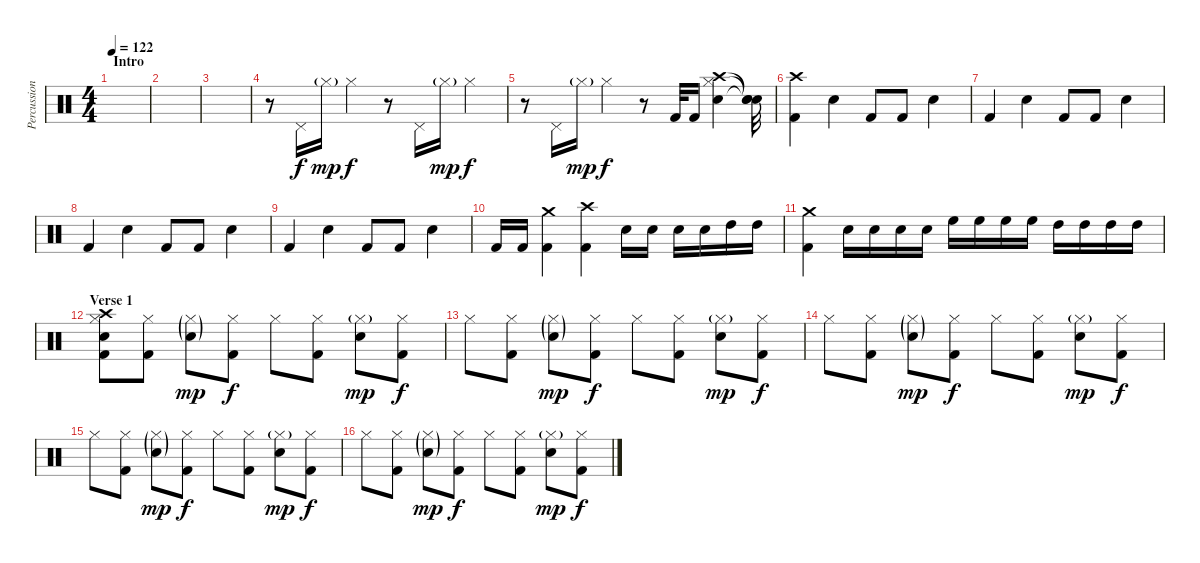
\track ("Percussion" "Percussion") {instrument percussion}
\staff {score}
\articulation defaults
\ts (4 4)
\section ("" "Intro")
\tempo 122
\clef neutral
\ks c
|
|
|
r.8 "Pedal Hi-Hat (hit)".16 "Hi-Hat (closed)"{g}.16{dy mp} "Hi-Hat (closed)".4{dy f} r.8 "Pedal Hi-Hat (hit)".16 "Hi-Hat (closed)"{g}.16{dy mp} "Hi-Hat (closed)".4{dy f} |
r.8 "Pedal Hi-Hat (hit)".16 "Hi-Hat (closed)"{g}.16{dy mp} "Hi-Hat (closed)".4{dy f} r.8 "Kick (hit) 2".32 "Kick (hit) 2".16 ("Crash high (hit)" "Hi-Hat (closed)" "Electric Snare (hit)").4 ("Snare (hit)"{t} "Snare (hit)"{t} "Snare (hit)"{t}).32 |
("Crash high (hit)" "Kick (hit) 2").4 "Snare (hit) 2".4 "Kick (hit) 2".8 "Kick (hit) 2".8 "Snare (hit) 2".4 |
"Kick (hit) 2".4 "Snare (hit) 2".4 "Kick (hit) 2".8 "Kick (hit) 2".8 "Snare (hit) 2".4 |
"Kick (hit) 2".4 "Snare (hit) 2".4 "Kick (hit) 2".8 "Kick (hit) 2".8 "Snare (hit) 2".4 |
"Kick (hit) 2".4 "Snare (hit) 2".4 "Kick (hit) 2".8 "Kick (hit) 2".8 "Snare (hit) 2".4 |
"Kick (hit) 2".16 "Kick (hit) 2".16 ("Crash medium (hit)" "Kick (hit) 2").4 ("Crash high (hit)" "Kick (hit) 2").4 "Snare (hit) 2".16 "Snare (hit) 2".16 "Snare (hit) 2".16 "Snare (hit) 2".16 "High Tom (hit)".16 "High Tom (hit)".16 |
("Crash medium (hit)" "Kick (hit) 2").4 "Snare (hit) 2".16 "Snare (hit) 2".16 "Snare (hit) 2".16 "Snare (hit) 2".16 "High Floor Tom (hit)".16 "High Floor Tom (hit)".16 "High Floor Tom (hit)".16 "High Floor Tom (hit)".16 "High Tom (hit)".16 "High Tom (hit)".16 "High Tom (hit)".16 "High Tom (hit)".16 |
\section ("" "Verse 1")
("Crash high (hit)" "Hi-Hat (closed)" "Snare (hit) 2" "Kick (hit) 2").8 ("Hi-Hat (closed)" "Kick (hit) 2").8 ("Hi-Hat (closed)"{g} "Snare (hit) 2"{g}).8{dy mp} ("Hi-Hat (closed)" "Kick (hit) 2").8{dy f} "Hi-Hat (closed)".8 ("Hi-Hat (closed)" "Kick (hit) 2").8 ("Hi-Hat (closed)"{g} "Snare (hit) 2").8{dy mp} ("Hi-Hat (closed)" "Kick (hit) 2").8{dy f} |
"Hi-Hat (closed)".8 ("Hi-Hat (closed)" "Kick (hit) 2").8 ("Hi-Hat (closed)"{g} "Snare (hit) 2"{g}).8{dy mp} ("Hi-Hat (closed)" "Kick (hit) 2").8{dy f} "Hi-Hat (closed)".8 ("Hi-Hat (closed)" "Kick (hit) 2").8 ("Hi-Hat (closed)"{g} "Snare (hit) 2").8{dy mp} ("Hi-Hat (closed)" "Kick (hit) 2").8{dy f} |
"Hi-Hat (closed)".8 ("Hi-Hat (closed)" "Kick (hit) 2").8 ("Hi-Hat (closed)"{g} "Snare (hit) 2"{g}).8{dy mp} ("Hi-Hat (closed)" "Kick (hit) 2").8{dy f} "Hi-Hat (closed)".8 ("Hi-Hat (closed)" "Kick (hit) 2").8 ("Hi-Hat (closed)"{g} "Snare (hit) 2").8{dy mp} ("Hi-Hat (closed)" "Kick (hit) 2").8{dy f} |
"Hi-Hat (closed)".8 ("Hi-Hat (closed)" "Kick (hit) 2").8 ("Hi-Hat (closed)"{g} "Snare (hit) 2"{g}).8{dy mp} ("Hi-Hat (closed)" "Kick (hit) 2").8{dy f} "Hi-Hat (closed)".8 ("Hi-Hat (closed)" "Kick (hit) 2").8 ("Hi-Hat (closed)"{g} "Snare (hit) 2").8{dy mp} ("Hi-Hat (closed)" "Kick (hit) 2").8{dy f} |
"Hi-Hat (closed)".8 ("Hi-Hat (closed)" "Kick (hit) 2").8 ("Hi-Hat (closed)"{g} "Snare (hit) 2"{g}).8{dy mp} ("Hi-Hat (closed)" "Kick (hit) 2").8{dy f} "Hi-Hat (closed)".8 ("Hi-Hat (closed)" "Kick (hit) 2").8 ("Hi-Hat (closed)"{g} "Snare (hit) 2").8{dy mp} ("Hi-Hat (closed)" "Kick (hit) 2").8{dy f}
